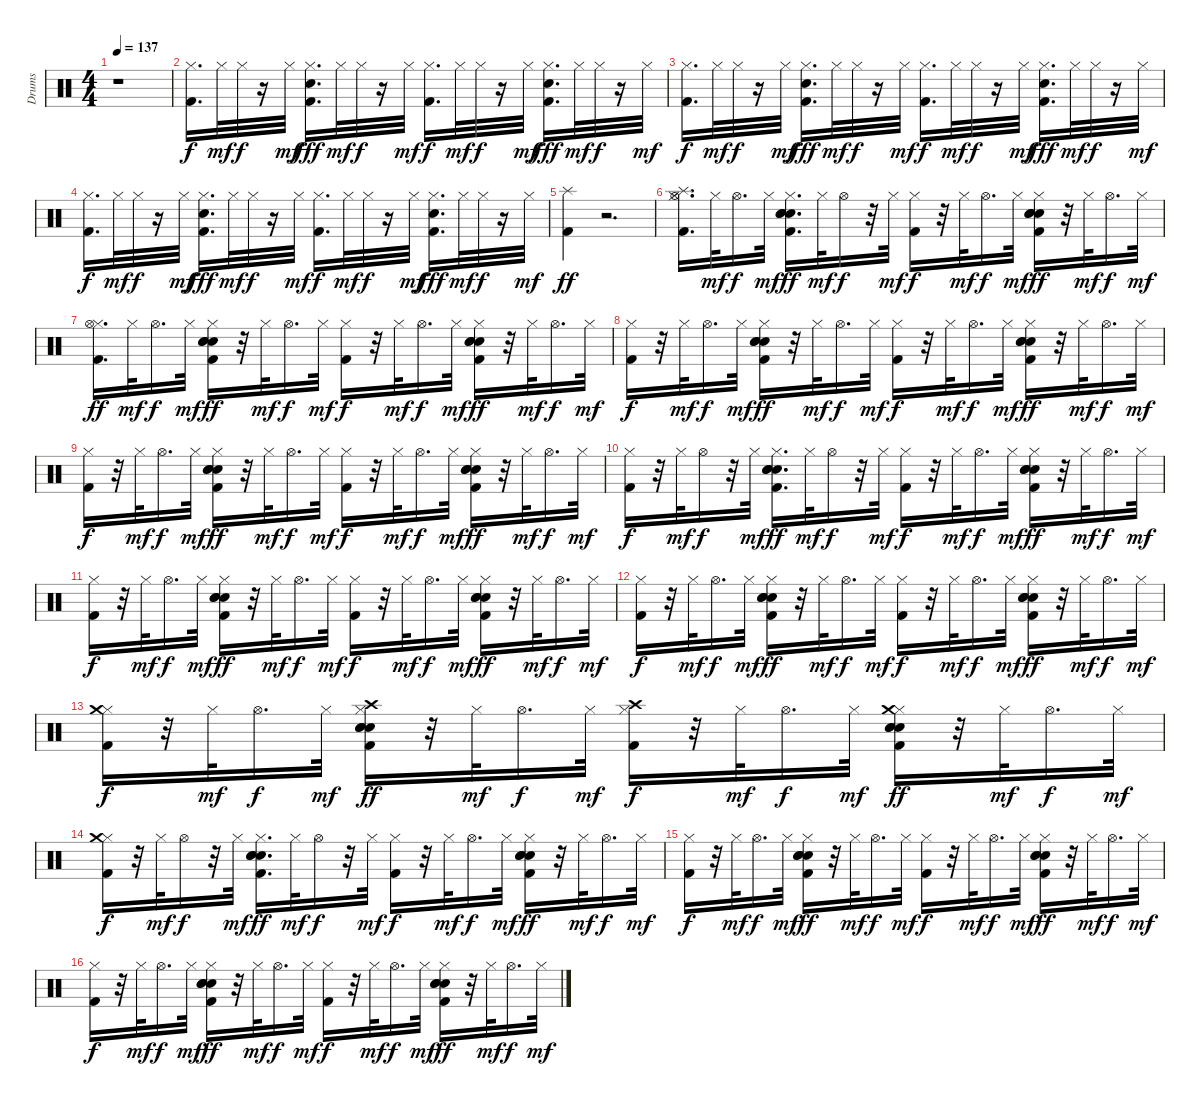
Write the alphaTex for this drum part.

\track ("Drums" "Drums") {instrument percussion}
\staff {score}
\articulation defaults
\ts (4 4)
\tempo 137
\clef neutral
\ks c
r.1{dy f} |
("Kick (hit) 2" "Hi-Hat (closed)").16{d} "Hi-Hat (closed)".32{dy mf} "Hi-Hat (closed)".32{dy f} r.16 "Hi-Hat (closed)".32{dy mf} ("Kick (hit) 2" "Hand Clap (hit)" "Hi-Hat (closed)").16{d dy fff} "Hi-Hat (closed)".32{dy mf} "Hi-Hat (closed)".32{dy f} r.16 "Hi-Hat (closed)".32{dy mf} ("Kick (hit) 2" "Hi-Hat (closed)").16{d dy f} "Hi-Hat (closed)".32{dy mf} "Hi-Hat (closed)".32{dy f} r.16 "Hi-Hat (closed)".32{dy mf} ("Kick (hit) 2" "Hand Clap (hit)" "Hi-Hat (closed)").16{d dy fff} "Hi-Hat (closed)".32{dy mf} "Hi-Hat (closed)".32{dy f} r.16 "Hi-Hat (closed)".32{dy mf} |
("Kick (hit) 2" "Hi-Hat (closed)").16{d dy f} "Hi-Hat (closed)".32{dy mf} "Hi-Hat (closed)".32{dy f} r.16 "Hi-Hat (closed)".32{dy mf} ("Kick (hit) 2" "Hand Clap (hit)" "Hi-Hat (closed)").16{d dy fff} "Hi-Hat (closed)".32{dy mf} "Hi-Hat (closed)".32{dy f} r.16 "Hi-Hat (closed)".32{dy mf} ("Kick (hit) 2" "Hi-Hat (closed)").16{d dy f} "Hi-Hat (closed)".32{dy mf} "Hi-Hat (closed)".32{dy f} r.16 "Hi-Hat (closed)".32{dy mf} ("Kick (hit) 2" "Hand Clap (hit)" "Hi-Hat (closed)").16{d dy fff} "Hi-Hat (closed)".32{dy mf} "Hi-Hat (closed)".32{dy f} r.16 "Hi-Hat (closed)".32{dy mf} |
("Kick (hit) 2" "Hi-Hat (closed)").16{d dy f} "Hi-Hat (closed)".32{dy mf} "Hi-Hat (closed)".32{dy f} r.16 "Hi-Hat (closed)".32{dy mf} ("Kick (hit) 2" "Hand Clap (hit)" "Hi-Hat (closed)").16{d dy fff} "Hi-Hat (closed)".32{dy mf} "Hi-Hat (closed)".32{dy f} r.16 "Hi-Hat (closed)".32{dy mf} ("Kick (hit) 2" "Hi-Hat (closed)").16{d dy f} "Hi-Hat (closed)".32{dy mf} "Hi-Hat (closed)".32{dy f} r.16 "Hi-Hat (closed)".32{dy mf} ("Kick (hit) 2" "Hand Clap (hit)" "Hi-Hat (closed)").16{d dy fff} "Hi-Hat (closed)".32{dy mf} "Hi-Hat (closed)".32{dy f} r.16 "Hi-Hat (closed)".32{dy mf} |
("Kick (hit) 2" "Splash (hit)").4{dy ff} r.2{d} |
("Kick (hit) 2" "Hi-Hat (closed)" "Hi-Hat (open)" "Splash (hit)").16{d} "Hi-Hat (closed)".32{dy mf} "Hi-Hat (open)".16{d dy f} "Hi-Hat (closed)".32{dy mf} ("Electric Snare (hit)" "Kick (hit) 2" "Hand Clap (hit)" "Hi-Hat (closed)" "Electric Snare (hit)").16{d dy ff} "Hi-Hat (closed)".32{dy mf} "Hi-Hat (open)".16{dy f} r.32 "Hi-Hat (closed)".32{dy mf} ("Kick (hit) 2" "Hi-Hat (closed)").16{dy f} r.32 "Hi-Hat (closed)".32{dy mf} "Hi-Hat (open)".16{d dy f} "Hi-Hat (closed)".32{dy mf} ("Electric Snare (hit)" "Kick (hit) 2" "Hand Clap (hit)" "Hi-Hat (closed)" "Electric Snare (hit)").16{dy ff} r.32 "Hi-Hat (closed)".32{dy mf} "Hi-Hat (open)".16{d dy f} "Hi-Hat (closed)".32{dy mf} |
("Kick (hit) 2" "Hi-Hat (closed)" "Hi-Hat (open)").16{d dy ff} "Hi-Hat (closed)".32{dy mf} "Hi-Hat (open)".16{d dy f} "Hi-Hat (closed)".32{dy mf} ("Electric Snare (hit)" "Kick (hit) 2" "Hand Clap (hit)" "Hi-Hat (closed)" "Electric Snare (hit)").16{dy ff} r.32 "Hi-Hat (closed)".32{dy mf} "Hi-Hat (open)".16{d dy f} "Hi-Hat (closed)".32{dy mf} ("Kick (hit) 2" "Hi-Hat (closed)").16{dy f} r.32 "Hi-Hat (closed)".32{dy mf} "Hi-Hat (open)".16{d dy f} "Hi-Hat (closed)".32{dy mf} ("Electric Snare (hit)" "Kick (hit) 2" "Hand Clap (hit)" "Hi-Hat (closed)" "Electric Snare (hit)").16{dy ff} r.32 "Hi-Hat (closed)".32{dy mf} "Hi-Hat (open)".16{d dy f} "Hi-Hat (closed)".32{dy mf} |
("Kick (hit) 2" "Hi-Hat (closed)").16{dy f} r.32 "Hi-Hat (closed)".32{dy mf} "Hi-Hat (open)".16{d dy f} "Hi-Hat (closed)".32{dy mf} ("Electric Snare (hit)" "Kick (hit) 2" "Hand Clap (hit)" "Hi-Hat (closed)" "Electric Snare (hit)").16{dy ff} r.32 "Hi-Hat (closed)".32{dy mf} "Hi-Hat (open)".16{d dy f} "Hi-Hat (closed)".32{dy mf} ("Kick (hit) 2" "Hi-Hat (closed)").16{dy f} r.32 "Hi-Hat (closed)".32{dy mf} "Hi-Hat (open)".16{d dy f} "Hi-Hat (closed)".32{dy mf} ("Electric Snare (hit)" "Kick (hit) 2" "Hand Clap (hit)" "Hi-Hat (closed)" "Electric Snare (hit)").16{dy ff} r.32 "Hi-Hat (closed)".32{dy mf} "Hi-Hat (open)".16{d dy f} "Hi-Hat (closed)".32{dy mf} |
("Kick (hit) 2" "Hi-Hat (closed)").16{dy f} r.32 "Hi-Hat (closed)".32{dy mf} "Hi-Hat (open)".16{d dy f} "Hi-Hat (closed)".32{dy mf} ("Electric Snare (hit)" "Kick (hit) 2" "Hand Clap (hit)" "Hi-Hat (closed)" "Electric Snare (hit)").16{dy ff} r.32 "Hi-Hat (closed)".32{dy mf} "Hi-Hat (open)".16{d dy f} "Hi-Hat (closed)".32{dy mf} ("Kick (hit) 2" "Hi-Hat (closed)").16{dy f} r.32 "Hi-Hat (closed)".32{dy mf} "Hi-Hat (open)".16{d dy f} "Hi-Hat (closed)".32{dy mf} ("Electric Snare (hit)" "Kick (hit) 2" "Hand Clap (hit)" "Hi-Hat (closed)" "Electric Snare (hit)").16{dy ff} r.32 "Hi-Hat (closed)".32{dy mf} "Hi-Hat (open)".16{d dy f} "Hi-Hat (closed)".32{dy mf} |
("Kick (hit) 2" "Hi-Hat (closed)").16{dy f} r.32 "Hi-Hat (closed)".32{dy mf} "Hi-Hat (open)".16{dy f} r.32 "Hi-Hat (closed)".32{dy mf} ("Electric Snare (hit)" "Kick (hit) 2" "Hand Clap (hit)" "Hi-Hat (closed)" "Electric Snare (hit)").16{d dy ff} "Hi-Hat (closed)".32{dy mf} "Hi-Hat (open)".16{dy f} r.32 "Hi-Hat (closed)".32{dy mf} ("Kick (hit) 2" "Hi-Hat (closed)").16{dy f} r.32 "Hi-Hat (closed)".32{dy mf} "Hi-Hat (open)".16{d dy f} "Hi-Hat (closed)".32{dy mf} ("Electric Snare (hit)" "Kick (hit) 2" "Hand Clap (hit)" "Hi-Hat (closed)" "Electric Snare (hit)").16{dy ff} r.32 "Hi-Hat (closed)".32{dy mf} "Hi-Hat (open)".16{d dy f} "Hi-Hat (closed)".32{dy mf} |
("Kick (hit) 2" "Hi-Hat (closed)").16{dy f} r.32 "Hi-Hat (closed)".32{dy mf} "Hi-Hat (open)".16{d dy f} "Hi-Hat (closed)".32{dy mf} ("Electric Snare (hit)" "Kick (hit) 2" "Hand Clap (hit)" "Hi-Hat (closed)" "Electric Snare (hit)").16{dy ff} r.32 "Hi-Hat (closed)".32{dy mf} "Hi-Hat (open)".16{d dy f} "Hi-Hat (closed)".32{dy mf} ("Kick (hit) 2" "Hi-Hat (closed)").16{dy f} r.32 "Hi-Hat (closed)".32{dy mf} "Hi-Hat (open)".16{d dy f} "Hi-Hat (closed)".32{dy mf} ("Electric Snare (hit)" "Kick (hit) 2" "Hand Clap (hit)" "Hi-Hat (closed)" "Electric Snare (hit)").16{dy ff} r.32 "Hi-Hat (closed)".32{dy mf} "Hi-Hat (open)".16{d dy f} "Hi-Hat (closed)".32{dy mf} |
("Kick (hit) 2" "Hi-Hat (closed)").16{dy f} r.32 "Hi-Hat (closed)".32{dy mf} "Hi-Hat (open)".16{d dy f} "Hi-Hat (closed)".32{dy mf} ("Electric Snare (hit)" "Kick (hit) 2" "Hand Clap (hit)" "Hi-Hat (closed)" "Electric Snare (hit)").16{dy ff} r.32 "Hi-Hat (closed)".32{dy mf} "Hi-Hat (open)".16{d dy f} "Hi-Hat (closed)".32{dy mf} ("Kick (hit) 2" "Hi-Hat (closed)").16{dy f} r.32 "Hi-Hat (closed)".32{dy mf} "Hi-Hat (open)".16{d dy f} "Hi-Hat (closed)".32{dy mf} ("Electric Snare (hit)" "Kick (hit) 2" "Hand Clap (hit)" "Hi-Hat (closed)" "Electric Snare (hit)").16{dy ff} r.32 "Hi-Hat (closed)".32{dy mf} "Hi-Hat (open)".16{d dy f} "Hi-Hat (closed)".32{dy mf} |
("Kick (hit) 2" "Hi-Hat (closed)" "Crash medium (hit)").16{dy f} r.32 "Hi-Hat (closed)".32{dy mf} "Hi-Hat (open)".16{d dy f} "Hi-Hat (closed)".32{dy mf} ("Electric Snare (hit)" "Kick (hit) 2" "Hand Clap (hit)" "Hi-Hat (closed)" "Electric Snare (hit)" "Crash high (hit)").16{dy ff} r.32 "Hi-Hat (closed)".32{dy mf} "Hi-Hat (open)".16{d dy f} "Hi-Hat (closed)".32{dy mf} ("Kick (hit) 2" "Hi-Hat (closed)" "Crash high (hit)").16{dy f} r.32 "Hi-Hat (closed)".32{dy mf} "Hi-Hat (open)".16{d dy f} "Hi-Hat (closed)".32{dy mf} ("Electric Snare (hit)" "Kick (hit) 2" "Hand Clap (hit)" "Hi-Hat (closed)" "Electric Snare (hit)" "Crash medium (hit)").16{dy ff} r.32 "Hi-Hat (closed)".32{dy mf} "Hi-Hat (open)".16{d dy f} "Hi-Hat (closed)".32{dy mf} |
("Kick (hit) 2" "Hi-Hat (closed)" "Crash medium (hit)").16{dy f} r.32 "Hi-Hat (closed)".32{dy mf} "Hi-Hat (open)".16{dy f} r.32 "Hi-Hat (closed)".32{dy mf} ("Electric Snare (hit)" "Kick (hit) 2" "Hand Clap (hit)" "Hi-Hat (closed)" "Electric Snare (hit)").16{d dy ff} "Hi-Hat (closed)".32{dy mf} "Hi-Hat (open)".16{dy f} r.32 "Hi-Hat (closed)".32{dy mf} ("Kick (hit) 2" "Hi-Hat (closed)").16{dy f} r.32 "Hi-Hat (closed)".32{dy mf} "Hi-Hat (open)".16{d dy f} "Hi-Hat (closed)".32{dy mf} ("Electric Snare (hit)" "Kick (hit) 2" "Hand Clap (hit)" "Hi-Hat (closed)" "Electric Snare (hit)").16{dy ff} r.32 "Hi-Hat (closed)".32{dy mf} "Hi-Hat (open)".16{d dy f} "Hi-Hat (closed)".32{dy mf} |
("Kick (hit) 2" "Hi-Hat (closed)").16{dy f} r.32 "Hi-Hat (closed)".32{dy mf} "Hi-Hat (open)".16{d dy f} "Hi-Hat (closed)".32{dy mf} ("Electric Snare (hit)" "Kick (hit) 2" "Hand Clap (hit)" "Hi-Hat (closed)" "Electric Snare (hit)").16{dy ff} r.32 "Hi-Hat (closed)".32{dy mf} "Hi-Hat (open)".16{d dy f} "Hi-Hat (closed)".32{dy mf} ("Kick (hit) 2" "Hi-Hat (closed)").16{dy f} r.32 "Hi-Hat (closed)".32{dy mf} "Hi-Hat (open)".16{d dy f} "Hi-Hat (closed)".32{dy mf} ("Electric Snare (hit)" "Kick (hit) 2" "Hand Clap (hit)" "Hi-Hat (closed)" "Electric Snare (hit)").16{dy ff} r.32 "Hi-Hat (closed)".32{dy mf} "Hi-Hat (open)".16{d dy f} "Hi-Hat (closed)".32{dy mf} |
("Kick (hit) 2" "Hi-Hat (closed)").16{dy f} r.32 "Hi-Hat (closed)".32{dy mf} "Hi-Hat (open)".16{d dy f} "Hi-Hat (closed)".32{dy mf} ("Electric Snare (hit)" "Kick (hit) 2" "Hand Clap (hit)" "Hi-Hat (closed)" "Electric Snare (hit)").16{dy ff} r.32 "Hi-Hat (closed)".32{dy mf} "Hi-Hat (open)".16{d dy f} "Hi-Hat (closed)".32{dy mf} ("Kick (hit) 2" "Hi-Hat (closed)").16{dy f} r.32 "Hi-Hat (closed)".32{dy mf} "Hi-Hat (open)".16{d dy f} "Hi-Hat (closed)".32{dy mf} ("Electric Snare (hit)" "Kick (hit) 2" "Hand Clap (hit)" "Hi-Hat (closed)" "Electric Snare (hit)").16{dy ff} r.32 "Hi-Hat (closed)".32{dy mf} "Hi-Hat (open)".16{d dy f} "Hi-Hat (closed)".32{dy mf}
